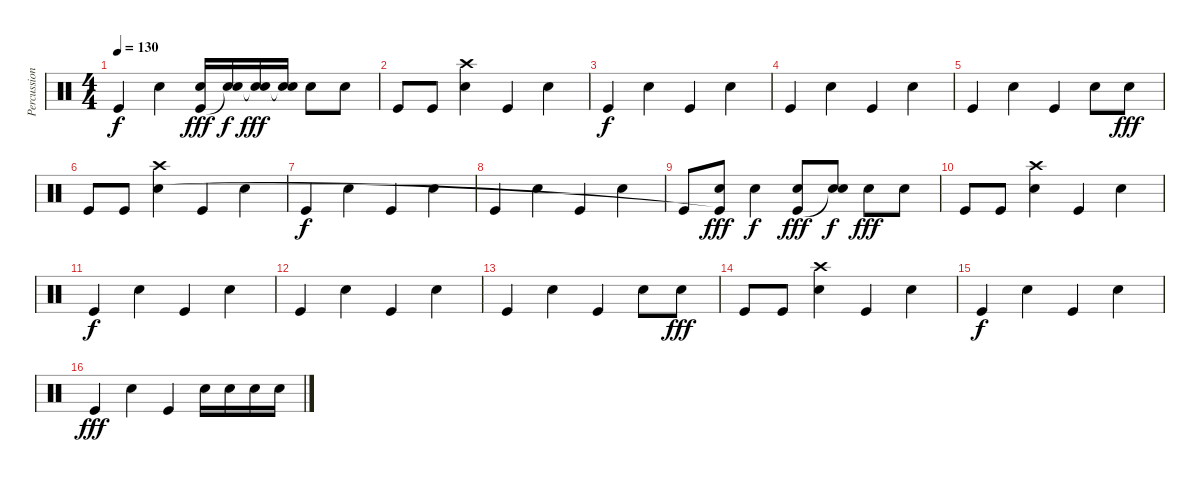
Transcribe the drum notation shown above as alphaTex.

\track ("Percussion" "Percussion") {instrument percussion}
\staff {score}
\articulation defaults
\ts (4 4)
\tempo 130
\clef neutral
\ks c "Kick (hit)".4{dy f} "Snare (hit) 2".4
("Snare (hit) 2" "Kick (hit)").16{dy fff} ("Snare (hit) 2" "Snare (hit)"{t}).16{dy f} ("Snare (hit) 2" "Snare (hit)"{t}).16{dy fff} ("Snare (hit) 2" "Snare (hit)"{t}).16 "Snare (hit) 2".8 "Snare (hit) 2".8 |
"Kick (hit)".8 "Kick (hit)".8 ("Crash high (hit)" "Snare (hit) 2").4 "Kick (hit)".4 "Snare (hit) 2".4 |
"Kick (hit)".4{dy f} "Snare (hit) 2".4 "Kick (hit)".4 "Snare (hit) 2".4 |
"Kick (hit)".4 "Snare (hit) 2".4 "Kick (hit)".4 "Snare (hit) 2".4 |
"Kick (hit)".4 "Snare (hit) 2".4 "Kick (hit)".4 "Snare (hit) 2".8 "Snare (hit) 2".8{dy fff} |
"Kick (hit)".8 "Kick (hit)".8 ("Crash high (hit)" "Snare (hit) 2").4 "Kick (hit)".4 "Snare (hit) 2".4 |
"Kick (hit)".4{dy f} "Snare (hit) 2".4 "Kick (hit)".4 "Snare (hit) 2".4 |
"Kick (hit)".4 "Snare (hit) 2".4 "Kick (hit)".4 "Snare (hit) 2".4 |
"Kick (hit)".8 ("Electric Snare (hit)" "Kick (hit)"{t}).8{dy fff} "Electric Snare (hit)".4{dy f} ("Snare (hit) 2" "Kick (hit)").8{dy fff} ("Snare (hit) 2" "Snare (hit)"{t}).8{dy f} "Snare (hit) 2".8{dy fff} "Snare (hit) 2".8 |
"Kick (hit)".8 "Kick (hit)".8 ("Crash high (hit)" "Snare (hit) 2").4 "Kick (hit)".4 "Snare (hit) 2".4 |
"Kick (hit)".4{dy f} "Snare (hit) 2".4 "Kick (hit)".4 "Snare (hit) 2".4 |
"Kick (hit)".4 "Snare (hit) 2".4 "Kick (hit)".4 "Snare (hit) 2".4 |
"Kick (hit)".4 "Snare (hit) 2".4 "Kick (hit)".4 "Snare (hit) 2".8 "Snare (hit) 2".8{dy fff} |
"Kick (hit)".8 "Kick (hit)".8 ("Crash high (hit)" "Snare (hit) 2").4 "Kick (hit)".4 "Snare (hit) 2".4 |
"Kick (hit)".4{dy f} "Snare (hit) 2".4 "Kick (hit)".4 "Snare (hit) 2".4 |
"Kick (hit)".4{dy fff} "Snare (hit) 2".4 "Kick (hit)".4 "Snare (hit) 2".16 "Snare (hit) 2".16 "Snare (hit) 2".16 "Snare (hit) 2".16
